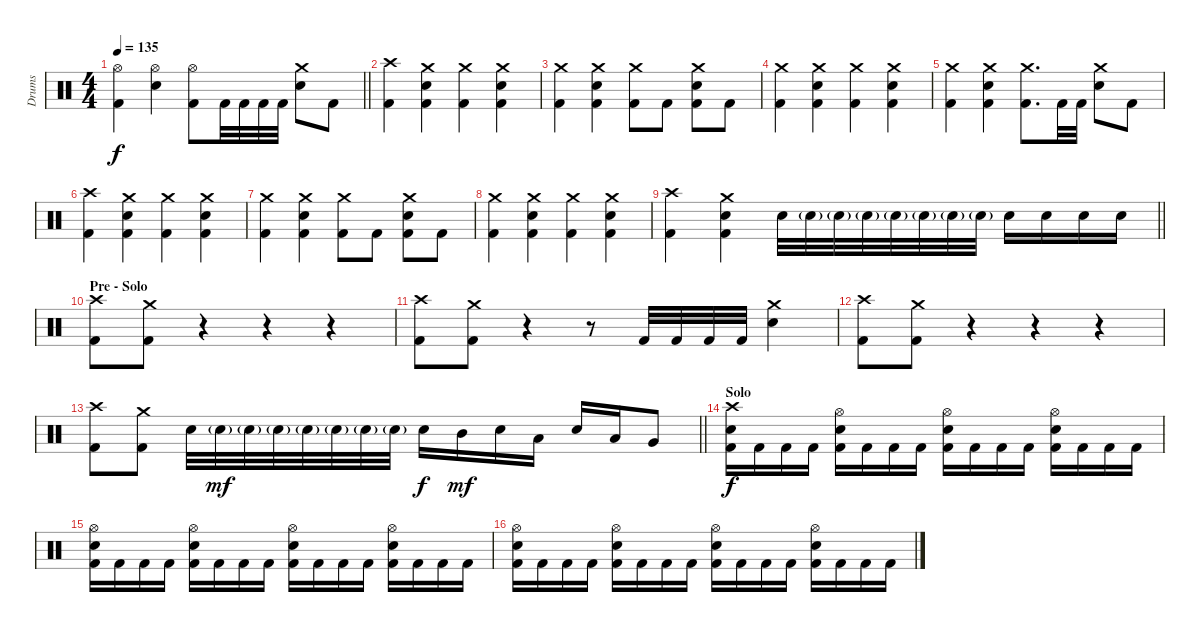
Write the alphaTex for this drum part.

\track ("Drums" "Drums") {instrument percussion}
\staff {score}
\articulation defaults
\ts (4 4)
\tempo 135
\clef neutral
\barLineRight lightlight
\ks c
("Hi-Hat (open)" "Kick (hit) 2").4{dy f} ("Hi-Hat (open)" "Electric Snare (hit)").4 ("Hi-Hat (open)" "Kick (hit) 2").8 "Kick (hit) 2".32 "Kick (hit) 2".32 "Kick (hit) 2".32 "Kick (hit) 2".32 ("Crash medium (hit)" "Electric Snare (hit)").8 "Kick (hit) 2".8 |
("Crash high (hit)" "Kick (hit) 2").4 ("Crash medium (hit)" "Electric Snare (hit)" "Kick (hit) 2").4 ("Crash medium (hit)" "Kick (hit) 2").4 ("Crash medium (hit)" "Electric Snare (hit)" "Kick (hit) 2").4 |
("Crash medium (hit)" "Kick (hit) 2").4 ("Crash medium (hit)" "Electric Snare (hit)" "Kick (hit) 2").4 ("Crash medium (hit)" "Kick (hit) 2").8 "Kick (hit) 2".8 ("Crash medium (hit)" "Electric Snare (hit)" "Kick (hit) 2").8 "Kick (hit) 2".8 |
("Crash medium (hit)" "Kick (hit) 2").4 ("Crash medium (hit)" "Electric Snare (hit)" "Kick (hit) 2").4 ("Crash medium (hit)" "Kick (hit) 2").4 ("Crash medium (hit)" "Electric Snare (hit)" "Kick (hit) 2").4 |
("Crash medium (hit)" "Kick (hit) 2").4 ("Crash medium (hit)" "Electric Snare (hit)" "Kick (hit) 2").4 ("Crash medium (hit)" "Kick (hit) 2").8{d} "Kick (hit) 2".32 "Kick (hit) 2".32 ("Crash medium (hit)" "Electric Snare (hit)").8 "Kick (hit) 2".8 |
("Crash high (hit)" "Kick (hit) 2").4 ("Crash medium (hit)" "Electric Snare (hit)" "Kick (hit) 2").4 ("Crash medium (hit)" "Kick (hit) 2").4 ("Crash medium (hit)" "Electric Snare (hit)" "Kick (hit) 2").4 |
("Crash medium (hit)" "Kick (hit) 2").4 ("Crash medium (hit)" "Electric Snare (hit)" "Kick (hit) 2").4 ("Crash medium (hit)" "Kick (hit) 2").8 "Kick (hit) 2".8 ("Crash medium (hit)" "Electric Snare (hit)" "Kick (hit) 2").8 "Kick (hit) 2".8 |
("Crash medium (hit)" "Kick (hit) 2").4 ("Crash medium (hit)" "Electric Snare (hit)" "Kick (hit) 2").4 ("Crash medium (hit)" "Kick (hit) 2").4 ("Crash medium (hit)" "Electric Snare (hit)" "Kick (hit) 2").4 |
\barLineRight lightlight
("Crash high (hit)" "Kick (hit) 2").4 ("Crash medium (hit)" "Electric Snare (hit)" "Kick (hit) 2").4 "Electric Snare (hit)".32 "Electric Snare (hit)"{g}.32 "Electric Snare (hit)"{g}.32 "Electric Snare (hit)"{g}.32 "Electric Snare (hit)"{g}.32 "Electric Snare (hit)"{g}.32 "Electric Snare (hit)"{g}.32 "Electric Snare (hit)"{g}.32 "Electric Snare (hit)".16 "Electric Snare (hit)".16 "Electric Snare (hit)".16 "Electric Snare (hit)".16 |
\section ("" "Pre - Solo")
("Crash high (hit)" "Kick (hit) 2").8 ("Crash medium (hit)" "Kick (hit) 2").8 r.4 r.4 r.4 |
("Crash high (hit)" "Kick (hit) 2").8 ("Crash medium (hit)" "Kick (hit) 2").8 r.4 r.8 "Kick (hit) 2".32 "Kick (hit) 2".32 "Kick (hit) 2".32 "Kick (hit) 2".32 ("Crash medium (hit)" "Electric Snare (hit)").4 |
("Crash high (hit)" "Kick (hit) 2").8 ("Crash medium (hit)" "Kick (hit) 2").8 r.4 r.4 r.4 |
\barLineRight lightlight
("Crash high (hit)" "Kick (hit) 2").8 ("Crash medium (hit)" "Kick (hit) 2").8 "Electric Snare (hit)".32 "Electric Snare (hit)"{g}.32{dy mf} "Electric Snare (hit)"{g}.32 "Electric Snare (hit)"{g}.32 "Electric Snare (hit)"{g}.32 "Electric Snare (hit)"{g}.32 "Electric Snare (hit)"{g}.32 "Electric Snare (hit)"{g}.32 "Electric Snare (hit)".16{dy f} "Mid Tom (hit)".16{dy mf} "Electric Snare (hit)".16 "Low Tom (hit)".16 "Electric Snare (hit)".16 "Low Tom (hit)".16 "Very Low Tom (hit)".8 |
\section ("" "Solo")
("Crash high (hit)" "Electric Snare (hit)" "Kick (hit) 2").16{dy f} "Kick (hit) 2".16 "Kick (hit) 2".16 "Kick (hit) 2".16 ("Hi-Hat (open)" "Electric Snare (hit)" "Kick (hit) 2").16 "Kick (hit) 2".16 "Kick (hit) 2".16 "Kick (hit) 2".16 ("Hi-Hat (open)" "Electric Snare (hit)" "Kick (hit) 2").16 "Kick (hit) 2".16 "Kick (hit) 2".16 "Kick (hit) 2".16 ("Hi-Hat (open)" "Electric Snare (hit)" "Kick (hit) 2").16 "Kick (hit) 2".16 "Kick (hit) 2".16 "Kick (hit) 2".16 |
("Hi-Hat (open)" "Electric Snare (hit)" "Kick (hit) 2").16 "Kick (hit) 2".16 "Kick (hit) 2".16 "Kick (hit) 2".16 ("Hi-Hat (open)" "Electric Snare (hit)" "Kick (hit) 2").16 "Kick (hit) 2".16 "Kick (hit) 2".16 "Kick (hit) 2".16 ("Hi-Hat (open)" "Electric Snare (hit)" "Kick (hit) 2").16 "Kick (hit) 2".16 "Kick (hit) 2".16 "Kick (hit) 2".16 ("Hi-Hat (open)" "Electric Snare (hit)" "Kick (hit) 2").16 "Kick (hit) 2".16 "Kick (hit) 2".16 "Kick (hit) 2".16 |
("Hi-Hat (open)" "Electric Snare (hit)" "Kick (hit) 2").16 "Kick (hit) 2".16 "Kick (hit) 2".16 "Kick (hit) 2".16 ("Hi-Hat (open)" "Electric Snare (hit)" "Kick (hit) 2").16 "Kick (hit) 2".16 "Kick (hit) 2".16 "Kick (hit) 2".16 ("Hi-Hat (open)" "Electric Snare (hit)" "Kick (hit) 2").16 "Kick (hit) 2".16 "Kick (hit) 2".16 "Kick (hit) 2".16 ("Hi-Hat (open)" "Electric Snare (hit)" "Kick (hit) 2").16 "Kick (hit) 2".16 "Kick (hit) 2".16 "Kick (hit) 2".16
